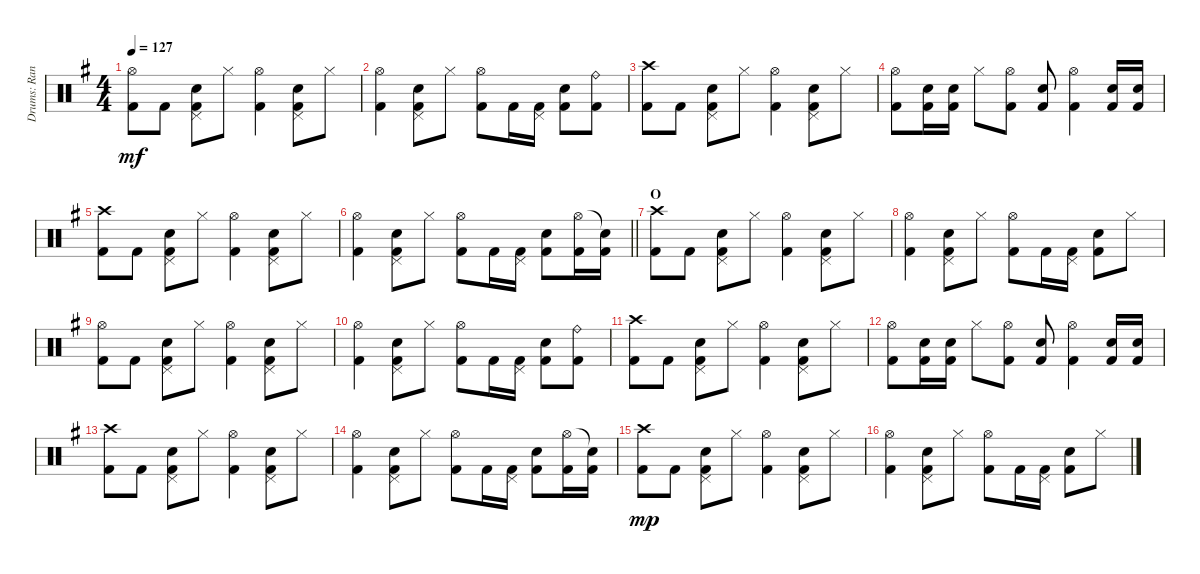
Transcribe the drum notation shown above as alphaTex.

\track ("Drums: Randy" "Drums: Ran") {instrument percussion}
\staff {score}
\articulation defaults
\ts (4 4)
\tempo 127
\clef neutral
\ks g
("Hi-Hat (open)" "Kick (hit) 2").8{dy mf} "Kick (hit) 2".8 ("Pedal Hi-Hat (hit)" "Snare (hit) 2" "Kick (hit) 2").8 "Hi-Hat (closed)".8 ("Hi-Hat (open)" "Kick (hit) 2").4 ("Pedal Hi-Hat (hit)" "Snare (hit) 2" "Kick (hit) 2").8 "Hi-Hat (closed)".8 |
("Hi-Hat (open)" "Kick (hit) 2").4 ("Pedal Hi-Hat (hit)" "Snare (hit) 2" "Kick (hit) 2").8 "Hi-Hat (closed)".8 ("Hi-Hat (open)" "Kick (hit) 2").8 "Kick (hit) 2".16 ("Pedal Hi-Hat (hit)" "Kick (hit) 2").16 ("Snare (hit) 2" "Kick (hit) 2").8 ("Ride (bell)" "Kick (hit) 2").8 |
("Crash high (hit)" "Kick (hit) 2").8 "Kick (hit) 2".8 ("Pedal Hi-Hat (hit)" "Snare (hit) 2" "Kick (hit) 2").8 "Hi-Hat (closed)".8 ("Hi-Hat (open)" "Kick (hit) 2").4 ("Pedal Hi-Hat (hit)" "Snare (hit) 2" "Kick (hit) 2").8 "Hi-Hat (closed)".8 |
("Hi-Hat (open)" "Kick (hit) 2").8 ("Snare (hit) 2" "Kick (hit) 2").16 ("Snare (hit) 2" "Kick (hit) 2").16 "Hi-Hat (closed)".8 ("Hi-Hat (open)" "Kick (hit) 2").8 ("Snare (hit) 2" "Kick (hit) 2").8 ("Hi-Hat (open)" "Kick (hit) 2").4 ("Snare (hit) 2" "Kick (hit) 2").16 ("Snare (hit) 2" "Kick (hit) 2").16 |
("Crash high (hit)" "Kick (hit) 2").8 "Kick (hit) 2".8 ("Pedal Hi-Hat (hit)" "Snare (hit) 2" "Kick (hit) 2").8 "Hi-Hat (closed)".8 ("Hi-Hat (open)" "Kick (hit) 2").4 ("Pedal Hi-Hat (hit)" "Snare (hit) 2" "Kick (hit) 2").8 "Hi-Hat (closed)".8 |
\barLineRight lightlight
("Hi-Hat (open)" "Kick (hit) 2").4 ("Pedal Hi-Hat (hit)" "Snare (hit) 2" "Kick (hit) 2").8 "Hi-Hat (closed)".8 ("Hi-Hat (open)" "Kick (hit) 2").8 "Kick (hit) 2".16 ("Pedal Hi-Hat (hit)" "Kick (hit) 2").16 ("Snare (hit) 2" "Kick (hit) 2").8 ("Hi-Hat (open)" "Kick (hit) 2").16 ("Snare (hit)"{t} "Kick (hit) 2").16 |
\section ("" "O")
("Crash high (hit)" "Kick (hit) 2").8 "Kick (hit) 2".8 ("Pedal Hi-Hat (hit)" "Snare (hit) 2" "Kick (hit) 2").8 "Hi-Hat (closed)".8 ("Hi-Hat (open)" "Kick (hit) 2").4 ("Pedal Hi-Hat (hit)" "Snare (hit) 2" "Kick (hit) 2").8 "Hi-Hat (closed)".8 |
("Hi-Hat (open)" "Kick (hit) 2").4 ("Pedal Hi-Hat (hit)" "Snare (hit) 2" "Kick (hit) 2").8 "Hi-Hat (closed)".8 ("Hi-Hat (open)" "Kick (hit) 2").8 "Kick (hit) 2".16 ("Pedal Hi-Hat (hit)" "Kick (hit) 2").16 ("Snare (hit) 2" "Kick (hit) 2").8 "Hi-Hat (closed)".8 |
("Hi-Hat (open)" "Kick (hit) 2").8 "Kick (hit) 2".8 ("Pedal Hi-Hat (hit)" "Snare (hit) 2" "Kick (hit) 2").8 "Hi-Hat (closed)".8 ("Hi-Hat (open)" "Kick (hit) 2").4 ("Pedal Hi-Hat (hit)" "Snare (hit) 2" "Kick (hit) 2").8 "Hi-Hat (closed)".8 |
("Hi-Hat (open)" "Kick (hit) 2").4 ("Pedal Hi-Hat (hit)" "Snare (hit) 2" "Kick (hit) 2").8 "Hi-Hat (closed)".8 ("Hi-Hat (open)" "Kick (hit) 2").8 "Kick (hit) 2".16 ("Pedal Hi-Hat (hit)" "Kick (hit) 2").16 ("Snare (hit) 2" "Kick (hit) 2").8 ("Ride (bell)" "Kick (hit) 2").8 |
("Crash high (hit)" "Kick (hit) 2").8 "Kick (hit) 2".8 ("Pedal Hi-Hat (hit)" "Snare (hit) 2" "Kick (hit) 2").8 "Hi-Hat (closed)".8 ("Hi-Hat (open)" "Kick (hit) 2").4 ("Pedal Hi-Hat (hit)" "Snare (hit) 2" "Kick (hit) 2").8 "Hi-Hat (closed)".8 |
("Hi-Hat (open)" "Kick (hit) 2").8 ("Snare (hit) 2" "Kick (hit) 2").16 ("Snare (hit) 2" "Kick (hit) 2").16 "Hi-Hat (closed)".8 ("Hi-Hat (open)" "Kick (hit) 2").8 ("Snare (hit) 2" "Kick (hit) 2").8 ("Hi-Hat (open)" "Kick (hit) 2").4 ("Snare (hit) 2" "Kick (hit) 2").16 ("Snare (hit) 2" "Kick (hit) 2").16 |
("Crash high (hit)" "Kick (hit) 2").8 "Kick (hit) 2".8 ("Pedal Hi-Hat (hit)" "Snare (hit) 2" "Kick (hit) 2").8 "Hi-Hat (closed)".8 ("Hi-Hat (open)" "Kick (hit) 2").4 ("Pedal Hi-Hat (hit)" "Snare (hit) 2" "Kick (hit) 2").8 "Hi-Hat (closed)".8 |
("Hi-Hat (open)" "Kick (hit) 2").4 ("Pedal Hi-Hat (hit)" "Snare (hit) 2" "Kick (hit) 2").8 "Hi-Hat (closed)".8 ("Hi-Hat (open)" "Kick (hit) 2").8 "Kick (hit) 2".16 ("Pedal Hi-Hat (hit)" "Kick (hit) 2").16 ("Snare (hit) 2" "Kick (hit) 2").8 ("Hi-Hat (open)" "Kick (hit) 2").16 ("Snare (hit)"{t} "Kick (hit) 2").16 |
("Crash high (hit)" "Kick (hit) 2").8{dy mp volume 8} "Kick (hit) 2".8 ("Pedal Hi-Hat (hit)" "Snare (hit) 2" "Kick (hit) 2").8 "Hi-Hat (closed)".8 ("Hi-Hat (open)" "Kick (hit) 2").4 ("Pedal Hi-Hat (hit)" "Snare (hit) 2" "Kick (hit) 2").8 "Hi-Hat (closed)".8 |
("Hi-Hat (open)" "Kick (hit) 2").4 ("Pedal Hi-Hat (hit)" "Snare (hit) 2" "Kick (hit) 2").8 "Hi-Hat (closed)".8 ("Hi-Hat (open)" "Kick (hit) 2").8 "Kick (hit) 2".16 ("Pedal Hi-Hat (hit)" "Kick (hit) 2").16 ("Snare (hit) 2" "Kick (hit) 2").8 "Hi-Hat (closed)".8
